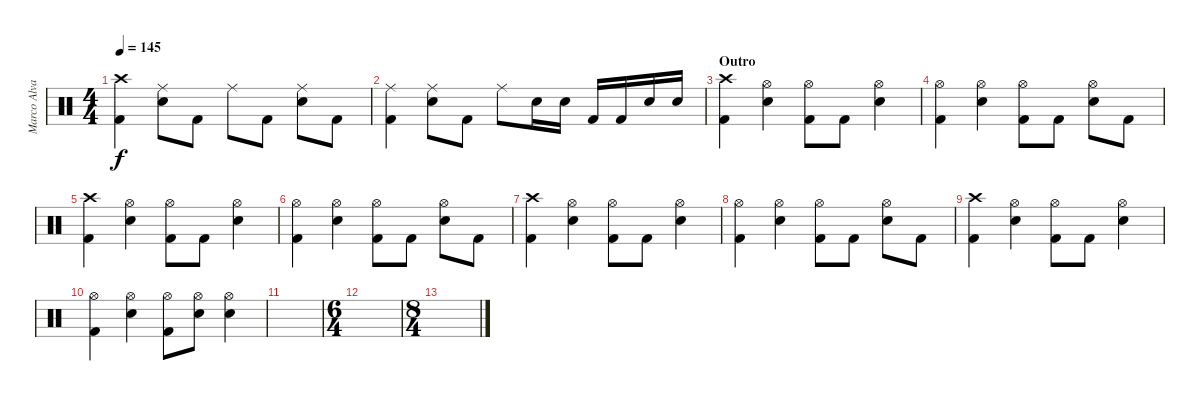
\track ("Marco Alvarez" "Marco Alva") {instrument percussion}
\staff {score}
\articulation defaults
\ts (4 4)
\tempo 145
\clef neutral
\ks c
("Kick (hit) 2" "Crash high (hit)").4{dy f} ("Electric Snare (hit)" "Ride (middle)").8 "Kick (hit) 2".8 "Ride (middle)".8 "Kick (hit) 2".8 ("Electric Snare (hit)" "Ride (middle)").8 "Kick (hit) 2".8 |
("Kick (hit) 2" "Ride (middle)").4 ("Electric Snare (hit)" "Ride (middle)").8 "Kick (hit) 2".8 "Ride (middle)".8 "Electric Snare (hit)".16 "Electric Snare (hit)".16 "Kick (hit) 2".16 "Kick (hit) 2".16 "Electric Snare (hit)".16 "Electric Snare (hit)".16 |
\section ("" "Outro")
("Kick (hit) 2" "Crash high (hit)").4 ("Electric Snare (hit)" "Hi-Hat (open)").4 ("Kick (hit) 2" "Hi-Hat (open)").8 "Kick (hit) 2".8 ("Electric Snare (hit)" "Hi-Hat (open)").4 |
("Kick (hit) 2" "Hi-Hat (open)").4 ("Electric Snare (hit)" "Hi-Hat (open)").4 ("Kick (hit) 2" "Hi-Hat (open)").8 "Kick (hit) 2".8 ("Electric Snare (hit)" "Hi-Hat (open)").8 "Kick (hit) 2".8 |
("Kick (hit) 2" "Crash high (hit)").4 ("Electric Snare (hit)" "Hi-Hat (open)").4 ("Kick (hit) 2" "Hi-Hat (open)").8 "Kick (hit) 2".8 ("Electric Snare (hit)" "Hi-Hat (open)").4 |
("Kick (hit) 2" "Hi-Hat (open)").4 ("Electric Snare (hit)" "Hi-Hat (open)").4 ("Kick (hit) 2" "Hi-Hat (open)").8 "Kick (hit) 2".8 ("Electric Snare (hit)" "Hi-Hat (open)").8 "Kick (hit) 2".8 |
("Kick (hit) 2" "Crash high (hit)").4 ("Electric Snare (hit)" "Hi-Hat (open)").4 ("Kick (hit) 2" "Hi-Hat (open)").8 "Kick (hit) 2".8 ("Electric Snare (hit)" "Hi-Hat (open)").4 |
("Kick (hit) 2" "Hi-Hat (open)").4 ("Electric Snare (hit)" "Hi-Hat (open)").4 ("Kick (hit) 2" "Hi-Hat (open)").8 "Kick (hit) 2".8 ("Electric Snare (hit)" "Hi-Hat (open)").8 "Kick (hit) 2".8 |
("Kick (hit) 2" "Crash high (hit)").4 ("Electric Snare (hit)" "Hi-Hat (open)").4 ("Kick (hit) 2" "Hi-Hat (open)").8 "Kick (hit) 2".8 ("Electric Snare (hit)" "Hi-Hat (open)").4 |
("Kick (hit) 2" "Hi-Hat (open)").4 ("Electric Snare (hit)" "Hi-Hat (open)").4 ("Kick (hit) 2" "Hi-Hat (open)").8 ("Electric Snare (hit)" "Hi-Hat (open)").8 ("Electric Snare (hit)" "Hi-Hat (open)").4 |
|
\ts (6 4)
|
\ts (8 4)
